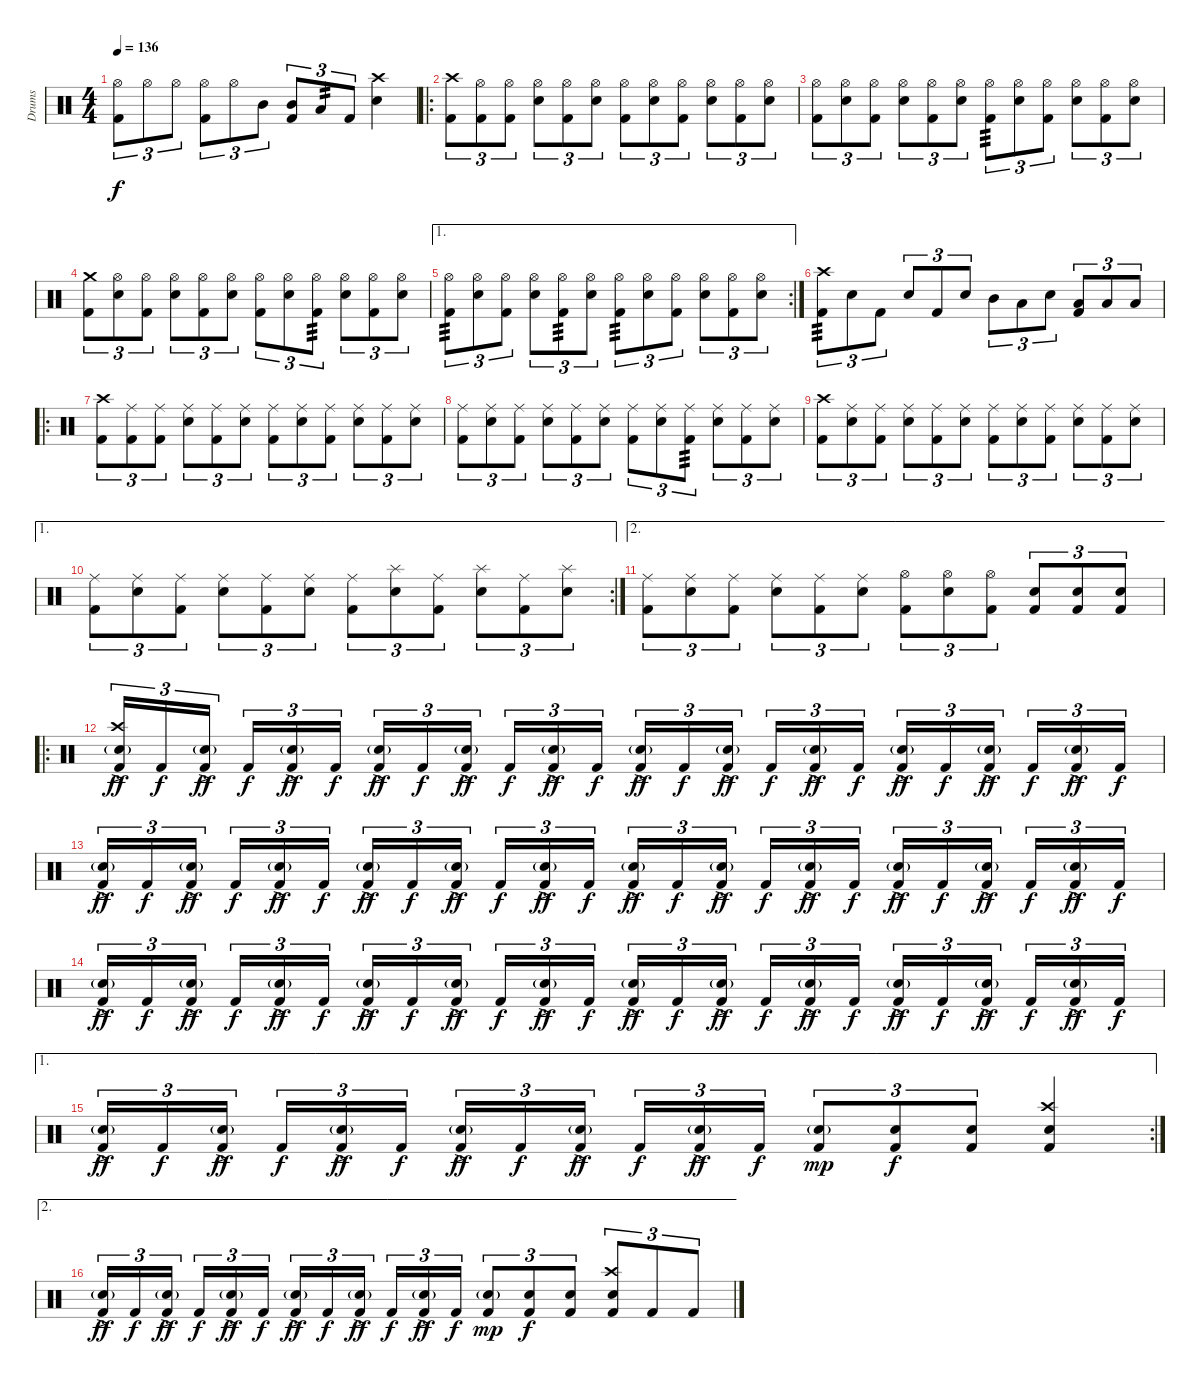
\track ("Drums" "Drums") {instrument percussion}
\staff {score}
\articulation defaults
\ts (4 4)
\tempo 136
\clef neutral
\ks c
("Hi-Hat (open)" "Kick (hit) 2").8{tu (3 2) dy f} "Hi-Hat (open)".8{tu (3 2)} "Hi-Hat (open)".8{tu (3 2)} ("Hi-Hat (open)" "Kick (hit) 2").8{tu (3 2)} "Hi-Hat (open)".8{tu (3 2)} "Mid Tom (hit)".8{tu (3 2)} ("Mid Tom (hit)" "Kick (hit) 2").8{tu (3 2)} "Low Floor Tom (hit)".8{tu (3 2) tp 2} "Kick (hit) 2".8{tu (3 2)} ("Crash high (hit)" "Electric Snare (hit)").4 |
\ro
("Crash high (hit)" "Kick (hit) 2").8{tu (3 2)} ("Hi-Hat (open)" "Kick (hit) 2").8{tu (3 2)} ("Hi-Hat (open)" "Kick (hit) 2").8{tu (3 2)} ("Hi-Hat (open)" "Electric Snare (hit)").8{tu (3 2)} ("Hi-Hat (open)" "Kick (hit) 2").8{tu (3 2)} ("Hi-Hat (open)" "Electric Snare (hit)").8{tu (3 2)} ("Hi-Hat (open)" "Kick (hit) 2").8{tu (3 2)} ("Hi-Hat (open)" "Electric Snare (hit)").8{tu (3 2)} ("Hi-Hat (open)" "Kick (hit) 2").8{tu (3 2)} ("Hi-Hat (open)" "Electric Snare (hit)").8{tu (3 2)} ("Hi-Hat (open)" "Kick (hit) 2").8{tu (3 2)} ("Hi-Hat (open)" "Electric Snare (hit)").8{tu (3 2)} |
("Hi-Hat (open)" "Kick (hit) 2").8{tu (3 2)} ("Hi-Hat (open)" "Electric Snare (hit)").8{tu (3 2)} ("Hi-Hat (open)" "Kick (hit) 2").8{tu (3 2)} ("Hi-Hat (open)" "Electric Snare (hit)").8{tu (3 2)} ("Hi-Hat (open)" "Kick (hit) 2").8{tu (3 2)} ("Hi-Hat (open)" "Electric Snare (hit)").8{tu (3 2)} ("Hi-Hat (open)" "Kick (hit) 2").8{tu (3 2) tp 3} ("Hi-Hat (open)" "Electric Snare (hit)").8{tu (3 2)} ("Hi-Hat (open)" "Kick (hit) 2").8{tu (3 2)} ("Hi-Hat (open)" "Electric Snare (hit)").8{tu (3 2)} ("Hi-Hat (open)" "Kick (hit) 2").8{tu (3 2)} ("Hi-Hat (open)" "Electric Snare (hit)").8{tu (3 2)} |
("Crash medium (hit)" "Kick (hit) 2").8{tu (3 2)} ("Hi-Hat (open)" "Electric Snare (hit)").8{tu (3 2)} ("Hi-Hat (open)" "Kick (hit) 2").8{tu (3 2)} ("Hi-Hat (open)" "Electric Snare (hit)").8{tu (3 2)} ("Hi-Hat (open)" "Kick (hit) 2").8{tu (3 2)} ("Hi-Hat (open)" "Electric Snare (hit)").8{tu (3 2)} ("Hi-Hat (open)" "Kick (hit) 2").8{tu (3 2)} ("Hi-Hat (open)" "Electric Snare (hit)").8{tu (3 2)} ("Hi-Hat (open)" "Kick (hit) 2").8{tu (3 2) tp 3} ("Hi-Hat (open)" "Electric Snare (hit)").8{tu (3 2)} ("Hi-Hat (open)" "Kick (hit) 2").8{tu (3 2)} ("Hi-Hat (open)" "Electric Snare (hit)").8{tu (3 2)} |
\ae 1
\rc 2
("Hi-Hat (open)" "Kick (hit) 2").8{tu (3 2) tp 3} ("Hi-Hat (open)" "Electric Snare (hit)").8{tu (3 2)} ("Hi-Hat (open)" "Kick (hit) 2").8{tu (3 2)} ("Hi-Hat (open)" "Electric Snare (hit)").8{tu (3 2)} ("Hi-Hat (open)" "Kick (hit) 2").8{tu (3 2) tp 3} ("Hi-Hat (open)" "Electric Snare (hit)").8{tu (3 2)} ("Hi-Hat (open)" "Kick (hit) 2").8{tu (3 2) tp 3} ("Hi-Hat (open)" "Electric Snare (hit)").8{tu (3 2)} ("Hi-Hat (open)" "Kick (hit) 2").8{tu (3 2)} ("Hi-Hat (open)" "Electric Snare (hit)").8{tu (3 2)} ("Hi-Hat (open)" "Kick (hit) 2").8{tu (3 2)} ("Hi-Hat (open)" "Electric Snare (hit)").8{tu (3 2)} |
("Crash high (hit)" "Kick (hit) 2").8{tu (3 2) tp 3} "Electric Snare (hit)".8{tu (3 2)} "Kick (hit) 2".8{tu (3 2)} "Electric Snare (hit)".8{tu (3 2)} "Kick (hit) 2".8{tu (3 2)} "Electric Snare (hit)".8{tu (3 2)} "Mid Tom (hit)".8{tu (3 2) balance 14} "Low Tom (hit)".8{tu (3 2) balance 5} "Electric Snare (hit)".8{tu (3 2) balance 8} ("Low Tom (hit)" "Kick (hit) 2").8{tu (3 2) balance 6} "Low Tom (hit)".8{tu (3 2)} "Low Floor Tom (hit)".8{tu (3 2) balance 7} |
\ro
("Crash high (hit)" "Kick (hit) 2").8{tu (3 2)} ("Ride (middle)" "Kick (hit) 2").8{tu (3 2)} ("Ride (middle)" "Kick (hit) 2").8{tu (3 2)} ("Ride (middle)" "Electric Snare (hit)").8{tu (3 2)} ("Ride (middle)" "Kick (hit) 2").8{tu (3 2)} ("Ride (middle)" "Electric Snare (hit)").8{tu (3 2)} ("Ride (middle)" "Kick (hit) 2").8{tu (3 2)} ("Ride (middle)" "Electric Snare (hit)").8{tu (3 2)} ("Ride (middle)" "Kick (hit) 2").8{tu (3 2)} ("Ride (middle)" "Electric Snare (hit)").8{tu (3 2)} ("Ride (middle)" "Kick (hit) 2").8{tu (3 2)} ("Ride (middle)" "Electric Snare (hit)").8{tu (3 2)} |
("Ride (middle)" "Kick (hit) 2").8{tu (3 2)} ("Ride (middle)" "Electric Snare (hit)").8{tu (3 2)} ("Ride (middle)" "Kick (hit) 2").8{tu (3 2)} ("Ride (middle)" "Electric Snare (hit)").8{tu (3 2)} ("Ride (middle)" "Kick (hit) 2").8{tu (3 2)} ("Ride (middle)" "Electric Snare (hit)").8{tu (3 2)} ("Ride (middle)" "Kick (hit) 2").8{tu (3 2)} ("Ride (middle)" "Electric Snare (hit)").8{tu (3 2)} ("Ride (middle)" "Kick (hit) 2").8{tu (3 2) tp 3} ("Ride (middle)" "Electric Snare (hit)").8{tu (3 2)} ("Ride (middle)" "Kick (hit) 2").8{tu (3 2)} ("Ride (middle)" "Electric Snare (hit)").8{tu (3 2)} |
("Crash high (hit)" "Kick (hit) 2").8{tu (3 2)} ("Ride (middle)" "Electric Snare (hit)").8{tu (3 2)} ("Ride (middle)" "Kick (hit) 2").8{tu (3 2)} ("Ride (middle)" "Electric Snare (hit)").8{tu (3 2)} ("Ride (middle)" "Kick (hit) 2").8{tu (3 2)} ("Ride (middle)" "Electric Snare (hit)").8{tu (3 2)} ("Ride (middle)" "Kick (hit) 2").8{tu (3 2)} ("Ride (middle)" "Electric Snare (hit)").8{tu (3 2)} ("Ride (middle)" "Kick (hit) 2").8{tu (3 2)} ("Ride (middle)" "Electric Snare (hit)").8{tu (3 2)} ("Ride (middle)" "Kick (hit) 2").8{tu (3 2)} ("Ride (middle)" "Electric Snare (hit)").8{tu (3 2)} |
\ae 1
\rc 2
("Ride (middle)" "Kick (hit) 2").8{tu (3 2)} ("Ride (middle)" "Electric Snare (hit)").8{tu (3 2)} ("Ride (middle)" "Kick (hit) 2").8{tu (3 2)} ("Ride (middle)" "Electric Snare (hit)").8{tu (3 2)} ("Ride (middle)" "Kick (hit) 2").8{tu (3 2)} ("Ride (middle)" "Electric Snare (hit)").8{tu (3 2)} ("Ride (middle)" "Kick (hit) 2").8{tu (3 2)} ("Splash (hit)" "Electric Snare (hit)").8{tu (3 2)} ("Ride (middle)" "Kick (hit) 2").8{tu (3 2)} ("Splash (hit)" "Electric Snare (hit)").8{tu (3 2)} ("Ride (middle)" "Kick (hit) 2").8{tu (3 2)} ("Splash (hit)" "Electric Snare (hit)").8{tu (3 2)} |
\ae 2
("Ride (middle)" "Kick (hit) 2").8{tu (3 2)} ("Ride (middle)" "Electric Snare (hit)").8{tu (3 2)} ("Ride (middle)" "Kick (hit) 2").8{tu (3 2)} ("Ride (middle)" "Electric Snare (hit)").8{tu (3 2)} ("Ride (middle)" "Kick (hit) 2").8{tu (3 2)} ("Ride (middle)" "Electric Snare (hit)").8{tu (3 2)} ("Hi-Hat (open)" "Kick (hit) 2").8{tu (3 2)} ("Hi-Hat (open)" "Electric Snare (hit)").8{tu (3 2)} ("Hi-Hat (open)" "Kick (hit) 2").8{tu (3 2)} ("Electric Snare (hit)" "Kick (hit) 2").8{tu (3 2)} ("Electric Snare (hit)" "Kick (hit) 2").8{tu (3 2)} ("Electric Snare (hit)" "Kick (hit) 2").8{tu (3 2)} |
\ro
("Crash high (hit)" "Electric Snare (hit)"{g} "Kick (hit) 2"{ac}).16{tu (3 2) dy ff} "Kick (hit) 2".16{tu (3 2) dy f} ("Electric Snare (hit)"{g} "Kick (hit) 2"{ac}).16{tu (3 2) dy ff beam splitsecondary} "Kick (hit) 2".16{tu (3 2) dy f} ("Electric Snare (hit)"{g} "Kick (hit) 2"{ac}).16{tu (3 2) dy ff} "Kick (hit) 2".16{tu (3 2) dy f} ("Electric Snare (hit)"{g} "Kick (hit) 2"{ac}).16{tu (3 2) dy ff} "Kick (hit) 2".16{tu (3 2) dy f} ("Electric Snare (hit)"{g} "Kick (hit) 2"{ac}).16{tu (3 2) dy ff beam splitsecondary} "Kick (hit) 2".16{tu (3 2) dy f} ("Electric Snare (hit)"{g} "Kick (hit) 2"{ac}).16{tu (3 2) dy ff} "Kick (hit) 2".16{tu (3 2) dy f} ("Electric Snare (hit)"{g} "Kick (hit) 2"{ac}).16{tu (3 2) dy ff} "Kick (hit) 2".16{tu (3 2) dy f} ("Electric Snare (hit)"{g} "Kick (hit) 2"{ac}).16{tu (3 2) dy ff beam splitsecondary} "Kick (hit) 2".16{tu (3 2) dy f} ("Electric Snare (hit)"{g} "Kick (hit) 2"{ac}).16{tu (3 2) dy ff} "Kick (hit) 2".16{tu (3 2) dy f} ("Electric Snare (hit)"{g} "Kick (hit) 2"{ac}).16{tu (3 2) dy ff} "Kick (hit) 2".16{tu (3 2) dy f} ("Electric Snare (hit)"{g} "Kick (hit) 2"{ac}).16{tu (3 2) dy ff beam splitsecondary} "Kick (hit) 2".16{tu (3 2) dy f} ("Electric Snare (hit)"{g} "Kick (hit) 2"{ac}).16{tu (3 2) dy ff} "Kick (hit) 2".16{tu (3 2) dy f} |
("Electric Snare (hit)"{g} "Kick (hit) 2"{ac}).16{tu (3 2) dy ff} "Kick (hit) 2".16{tu (3 2) dy f} ("Electric Snare (hit)"{g} "Kick (hit) 2"{ac}).16{tu (3 2) dy ff beam splitsecondary} "Kick (hit) 2".16{tu (3 2) dy f} ("Electric Snare (hit)"{g} "Kick (hit) 2"{ac}).16{tu (3 2) dy ff} "Kick (hit) 2".16{tu (3 2) dy f} ("Electric Snare (hit)"{g} "Kick (hit) 2"{ac}).16{tu (3 2) dy ff} "Kick (hit) 2".16{tu (3 2) dy f} ("Electric Snare (hit)"{g} "Kick (hit) 2"{ac}).16{tu (3 2) dy ff beam splitsecondary} "Kick (hit) 2".16{tu (3 2) dy f} ("Electric Snare (hit)"{g} "Kick (hit) 2"{ac}).16{tu (3 2) dy ff} "Kick (hit) 2".16{tu (3 2) dy f} ("Electric Snare (hit)"{g} "Kick (hit) 2"{ac}).16{tu (3 2) dy ff} "Kick (hit) 2".16{tu (3 2) dy f} ("Electric Snare (hit)"{g} "Kick (hit) 2"{ac}).16{tu (3 2) dy ff beam splitsecondary} "Kick (hit) 2".16{tu (3 2) dy f} ("Electric Snare (hit)"{g} "Kick (hit) 2"{ac}).16{tu (3 2) dy ff} "Kick (hit) 2".16{tu (3 2) dy f} ("Electric Snare (hit)"{g} "Kick (hit) 2"{ac}).16{tu (3 2) dy ff} "Kick (hit) 2".16{tu (3 2) dy f} ("Electric Snare (hit)"{g} "Kick (hit) 2"{ac}).16{tu (3 2) dy ff beam splitsecondary} "Kick (hit) 2".16{tu (3 2) dy f} ("Electric Snare (hit)"{g} "Kick (hit) 2"{ac}).16{tu (3 2) dy ff} "Kick (hit) 2".16{tu (3 2) dy f} |
("Electric Snare (hit)"{g} "Kick (hit) 2"{ac}).16{tu (3 2) dy ff} "Kick (hit) 2".16{tu (3 2) dy f} ("Electric Snare (hit)"{g} "Kick (hit) 2"{ac}).16{tu (3 2) dy ff beam splitsecondary} "Kick (hit) 2".16{tu (3 2) dy f} ("Electric Snare (hit)"{g} "Kick (hit) 2"{ac}).16{tu (3 2) dy ff} "Kick (hit) 2".16{tu (3 2) dy f} ("Electric Snare (hit)"{g} "Kick (hit) 2"{ac}).16{tu (3 2) dy ff} "Kick (hit) 2".16{tu (3 2) dy f} ("Electric Snare (hit)"{g} "Kick (hit) 2"{ac}).16{tu (3 2) dy ff beam splitsecondary} "Kick (hit) 2".16{tu (3 2) dy f} ("Electric Snare (hit)"{g} "Kick (hit) 2"{ac}).16{tu (3 2) dy ff} "Kick (hit) 2".16{tu (3 2) dy f} ("Electric Snare (hit)"{g} "Kick (hit) 2"{ac}).16{tu (3 2) dy ff} "Kick (hit) 2".16{tu (3 2) dy f} ("Electric Snare (hit)"{g} "Kick (hit) 2"{ac}).16{tu (3 2) dy ff beam splitsecondary} "Kick (hit) 2".16{tu (3 2) dy f} ("Electric Snare (hit)"{g} "Kick (hit) 2"{ac}).16{tu (3 2) dy ff} "Kick (hit) 2".16{tu (3 2) dy f} ("Electric Snare (hit)"{g} "Kick (hit) 2"{ac}).16{tu (3 2) dy ff} "Kick (hit) 2".16{tu (3 2) dy f} ("Electric Snare (hit)"{g} "Kick (hit) 2"{ac}).16{tu (3 2) dy ff beam splitsecondary} "Kick (hit) 2".16{tu (3 2) dy f} ("Electric Snare (hit)"{g} "Kick (hit) 2"{ac}).16{tu (3 2) dy ff} "Kick (hit) 2".16{tu (3 2) dy f} |
\ae 1
\rc 2
("Electric Snare (hit)"{g} "Kick (hit) 2"{ac}).16{tu (3 2) dy ff} "Kick (hit) 2".16{tu (3 2) dy f} ("Electric Snare (hit)"{g} "Kick (hit) 2"{ac}).16{tu (3 2) dy ff beam splitsecondary} "Kick (hit) 2".16{tu (3 2) dy f} ("Electric Snare (hit)"{g} "Kick (hit) 2"{ac}).16{tu (3 2) dy ff} "Kick (hit) 2".16{tu (3 2) dy f} ("Electric Snare (hit)"{g} "Kick (hit) 2"{ac}).16{tu (3 2) dy ff} "Kick (hit) 2".16{tu (3 2) dy f} ("Electric Snare (hit)"{g} "Kick (hit) 2"{ac}).16{tu (3 2) dy ff beam splitsecondary} "Kick (hit) 2".16{tu (3 2) dy f} ("Electric Snare (hit)"{g} "Kick (hit) 2"{ac}).16{tu (3 2) dy ff} "Kick (hit) 2".16{tu (3 2) dy f} ("Electric Snare (hit)"{g} "Kick (hit) 2").8{tu (3 2) dy mp} ("Electric Snare (hit)" "Kick (hit) 2").8{tu (3 2) dy f} ("Electric Snare (hit)" "Kick (hit) 2").8{tu (3 2)} ("Crash high (hit)" "Electric Snare (hit)" "Kick (hit) 2").4 |
\ae 2
("Electric Snare (hit)"{g} "Kick (hit) 2"{ac}).16{tu (3 2) dy ff} "Kick (hit) 2".16{tu (3 2) dy f} ("Electric Snare (hit)"{g} "Kick (hit) 2"{ac}).16{tu (3 2) dy ff beam splitsecondary} "Kick (hit) 2".16{tu (3 2) dy f} ("Electric Snare (hit)"{g} "Kick (hit) 2"{ac}).16{tu (3 2) dy ff} "Kick (hit) 2".16{tu (3 2) dy f} ("Electric Snare (hit)"{g} "Kick (hit) 2"{ac}).16{tu (3 2) dy ff} "Kick (hit) 2".16{tu (3 2) dy f} ("Electric Snare (hit)"{g} "Kick (hit) 2"{ac}).16{tu (3 2) dy ff beam splitsecondary} "Kick (hit) 2".16{tu (3 2) dy f} ("Electric Snare (hit)"{g} "Kick (hit) 2"{ac}).16{tu (3 2) dy ff} "Kick (hit) 2".16{tu (3 2) dy f} ("Electric Snare (hit)"{g} "Kick (hit) 2").8{tu (3 2) dy mp} ("Electric Snare (hit)" "Kick (hit) 2").8{tu (3 2) dy f} ("Electric Snare (hit)" "Kick (hit) 2").8{tu (3 2)} ("Crash high (hit)" "Electric Snare (hit)" "Kick (hit) 2").8{tu (3 2)} "Kick (hit) 2".8{tu (3 2)} "Kick (hit) 2".8{tu (3 2)}
